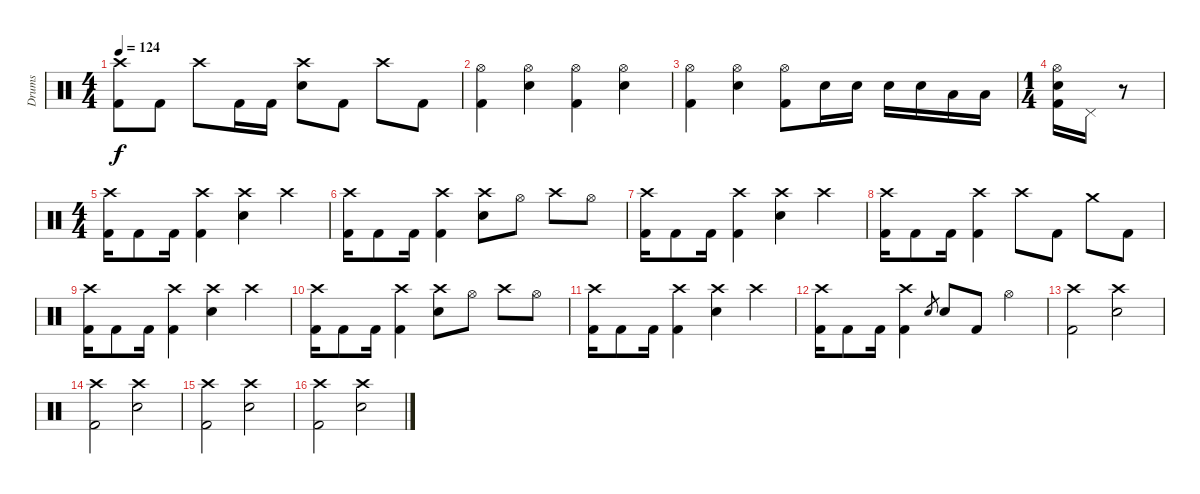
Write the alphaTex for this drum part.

\track ("Drums" "Drums") {instrument percussion}
\staff {score}
\articulation defaults
\ts (4 4)
\tempo 124
\clef neutral
\ks c
("Crash high (hit)" "Kick (hit) 2").8{dy f} "Kick (hit) 2".8 "Crash high (hit)".8 "Kick (hit) 2".16 "Kick (hit) 2".16 ("Crash high (hit)" "Snare (hit) 2").8 "Kick (hit) 2".8 "Crash high (hit)".8 "Kick (hit) 2".8 |
("Hi-Hat (open)" "Kick (hit) 2").4 ("Hi-Hat (open)" "Snare (hit) 2").4 ("Hi-Hat (open)" "Kick (hit) 2").4 ("Hi-Hat (open)" "Snare (hit) 2").4 |
("Hi-Hat (open)" "Kick (hit) 2").4 ("Hi-Hat (open)" "Snare (hit) 2").4 ("Hi-Hat (open)" "Kick (hit) 2").8 "Snare (hit) 2".16 "Snare (hit) 2".16 "Snare (hit) 2".16 "Snare (hit) 2".16 "Low Tom (hit)".16 "Low Tom (hit)".16 |
\ts (1 4)
("Hi-Hat (open)" "Snare (hit) 2" "Kick (hit) 2").16 "Pedal Hi-Hat (hit)".16 r.8 |
\ts (4 4)
("Crash high (hit)" "Kick (hit) 2").16 "Kick (hit) 2".8 "Kick (hit) 2".16 ("Crash high (hit)" "Kick (hit) 2").4 ("Crash high (hit)" "Snare (hit) 2").4 "Crash high (hit)".4 |
("Crash high (hit)" "Kick (hit) 2").16 "Kick (hit) 2".8 "Kick (hit) 2".16 ("Crash high (hit)" "Kick (hit) 2").4 ("Crash high (hit)" "Snare (hit) 2").8 "Hi-Hat (open)".8 "Crash high (hit)".8 "Hi-Hat (open)".8 |
("Crash high (hit)" "Kick (hit) 2").16 "Kick (hit) 2".8 "Kick (hit) 2".16 ("Crash high (hit)" "Kick (hit) 2").4 ("Crash high (hit)" "Snare (hit) 2").4 "Crash high (hit)".4 |
("Crash high (hit)" "Kick (hit) 2").16 "Kick (hit) 2".8 "Kick (hit) 2".16 ("Crash high (hit)" "Kick (hit) 2").4 "Crash high (hit)".8 "Kick (hit) 2".8 "Crash medium (hit)".8 "Kick (hit) 2".8 |
("Crash high (hit)" "Kick (hit) 2").16 "Kick (hit) 2".8 "Kick (hit) 2".16 ("Crash high (hit)" "Kick (hit) 2").4 ("Crash high (hit)" "Snare (hit) 2").4 "Crash high (hit)".4 |
("Crash high (hit)" "Kick (hit) 2").16 "Kick (hit) 2".8 "Kick (hit) 2".16 ("Crash high (hit)" "Kick (hit) 2").4 ("Crash high (hit)" "Snare (hit) 2").8 "Hi-Hat (open)".8 "Crash high (hit)".8 "Hi-Hat (open)".8 |
("Crash high (hit)" "Kick (hit) 2").16 "Kick (hit) 2".8 "Kick (hit) 2".16 ("Crash high (hit)" "Kick (hit) 2").4 ("Crash high (hit)" "Snare (hit) 2").4 "Crash high (hit)".4 |
("Crash high (hit)" "Kick (hit) 2").16 "Kick (hit) 2".8 "Kick (hit) 2".16 ("Crash high (hit)" "Kick (hit) 2").4 "Snare (hit) 2".8{gr} "Snare (hit) 2".8 "Kick (hit) 2".8 "Hi-Hat (open)".4 |
("Crash high (hit)" "Kick (hit) 2").2 ("Crash high (hit)" "Snare (hit) 2").2 |
("Crash high (hit)" "Kick (hit) 2").2 ("Crash high (hit)" "Snare (hit) 2").2 |
("Crash high (hit)" "Kick (hit) 2").2 ("Crash high (hit)" "Snare (hit) 2").2 |
("Crash high (hit)" "Kick (hit) 2").2 ("Crash high (hit)" "Snare (hit) 2").2
